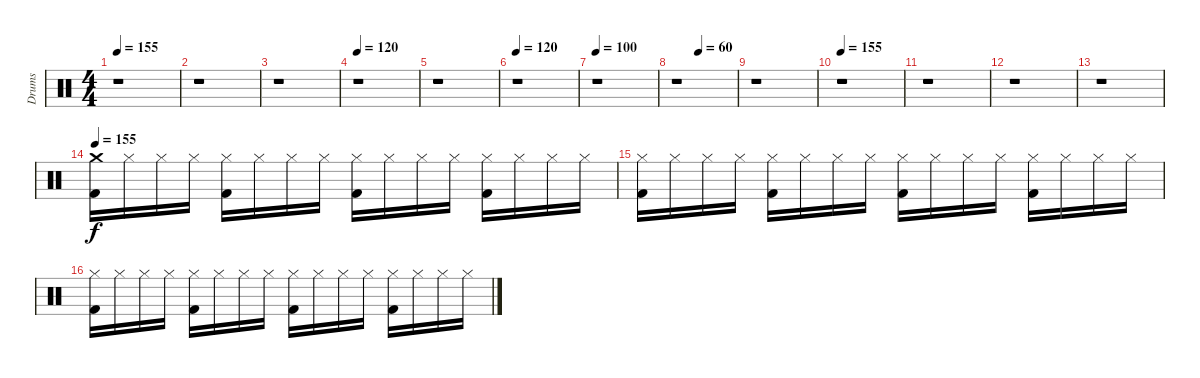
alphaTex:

\track ("Drums" "Drums") {instrument percussion}
\staff {score}
\articulation defaults
\ts (4 4)
\tempo 155
\tempo 120
\tempo 155
\clef neutral
\ks c
r.1{dy f} |
r.1 |
r.1 |
\tempo 120
r.1 |
r.1 |
\tempo 120
r.1 |
\tempo 100
r.1 |
\tempo (60 0.375)
r.1 |
r.1 |
\tempo 155
r.1 |
r.1 |
r.1 |
r.1 |
\tempo 155
("Crash medium (hit)" "Kick (hit) 2").16 "Hi-Hat (closed)".16 "Hi-Hat (closed)".16 "Hi-Hat (closed)".16 ("Hi-Hat (closed)" "Kick (hit) 2").16 "Hi-Hat (closed)".16 "Hi-Hat (closed)".16 "Hi-Hat (closed)".16 ("Hi-Hat (closed)" "Kick (hit) 2").16 "Hi-Hat (closed)".16 "Hi-Hat (closed)".16 "Hi-Hat (closed)".16 ("Hi-Hat (closed)" "Kick (hit) 2").16 "Hi-Hat (closed)".16 "Hi-Hat (closed)".16 "Hi-Hat (closed)".16 |
("Hi-Hat (closed)" "Kick (hit) 2").16 "Hi-Hat (closed)".16 "Hi-Hat (closed)".16 "Hi-Hat (closed)".16 ("Hi-Hat (closed)" "Kick (hit) 2").16 "Hi-Hat (closed)".16 "Hi-Hat (closed)".16 "Hi-Hat (closed)".16 ("Hi-Hat (closed)" "Kick (hit) 2").16 "Hi-Hat (closed)".16 "Hi-Hat (closed)".16 "Hi-Hat (closed)".16 ("Hi-Hat (closed)" "Kick (hit) 2").16 "Hi-Hat (closed)".16 "Hi-Hat (closed)".16 "Hi-Hat (closed)".16 |
("Hi-Hat (closed)" "Kick (hit) 2").16 "Hi-Hat (closed)".16 "Hi-Hat (closed)".16 "Hi-Hat (closed)".16 ("Hi-Hat (closed)" "Kick (hit) 2").16 "Hi-Hat (closed)".16 "Hi-Hat (closed)".16 "Hi-Hat (closed)".16 ("Hi-Hat (closed)" "Kick (hit) 2").16 "Hi-Hat (closed)".16 "Hi-Hat (closed)".16 "Hi-Hat (closed)".16 ("Hi-Hat (closed)" "Kick (hit) 2").16 "Hi-Hat (closed)".16 "Hi-Hat (closed)".16 "Hi-Hat (closed)".16
